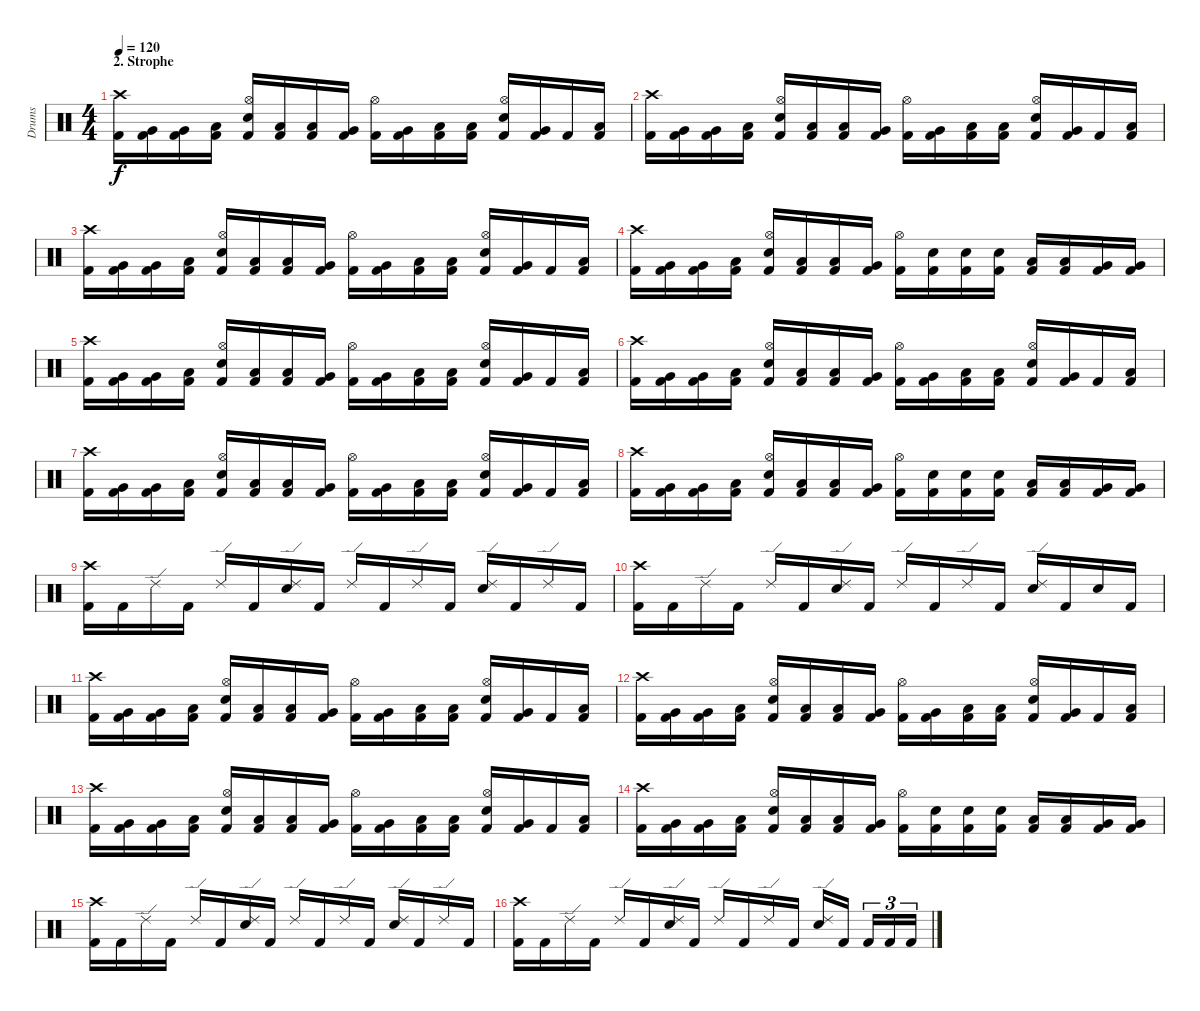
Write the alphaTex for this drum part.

\track ("Drums" "Drums") {instrument percussion}
\staff {score}
\articulation defaults
\ts (4 4)
\section ("" "2. Strophe")
\tempo 120
\clef neutral
\ks c
("Crash high (hit)" "Kick (hit) 2").16{dy f} ("Very Low Tom (hit)" "Kick (hit) 2").16 ("Very Low Tom (hit)" "Kick (hit) 2").16 ("Low Floor Tom (hit)" "Kick (hit) 2").16 ("Hi-Hat (open)" "Snare (hit) 2" "Kick (hit) 2").16 ("Low Tom (hit)" "Kick (hit) 2").16 ("Low Tom (hit)" "Kick (hit) 2").16 ("Very Low Tom (hit)" "Kick (hit) 2").16 ("Hi-Hat (open)" "Kick (hit) 2").16 ("Very Low Tom (hit)" "Kick (hit) 2").16 ("Low Floor Tom (hit)" "Kick (hit) 2").16 ("Low Floor Tom (hit)" "Kick (hit) 2").16 ("Hi-Hat (open)" "Snare (hit) 2" "Kick (hit) 2").16 ("Very Low Tom (hit)" "Kick (hit) 2").16 "Kick (hit) 2".16 ("Low Floor Tom (hit)" "Kick (hit) 2").16 |
("Crash high (hit)" "Kick (hit) 2").16 ("Very Low Tom (hit)" "Kick (hit) 2").16 ("Very Low Tom (hit)" "Kick (hit) 2").16 ("Low Floor Tom (hit)" "Kick (hit) 2").16 ("Hi-Hat (open)" "Snare (hit) 2" "Kick (hit) 2").16 ("Low Tom (hit)" "Kick (hit) 2").16 ("Low Tom (hit)" "Kick (hit) 2").16 ("Very Low Tom (hit)" "Kick (hit) 2").16 ("Hi-Hat (open)" "Kick (hit) 2").16 ("Very Low Tom (hit)" "Kick (hit) 2").16 ("Low Floor Tom (hit)" "Kick (hit) 2").16 ("Low Floor Tom (hit)" "Kick (hit) 2").16 ("Hi-Hat (open)" "Snare (hit) 2" "Kick (hit) 2").16 ("Very Low Tom (hit)" "Kick (hit) 2").16 "Kick (hit) 2".16 ("Low Floor Tom (hit)" "Kick (hit) 2").16 |
("Crash high (hit)" "Kick (hit) 2").16 ("Very Low Tom (hit)" "Kick (hit) 2").16 ("Very Low Tom (hit)" "Kick (hit) 2").16 ("Low Floor Tom (hit)" "Kick (hit) 2").16 ("Hi-Hat (open)" "Snare (hit) 2" "Kick (hit) 2").16 ("Low Tom (hit)" "Kick (hit) 2").16 ("Low Tom (hit)" "Kick (hit) 2").16 ("Very Low Tom (hit)" "Kick (hit) 2").16 ("Hi-Hat (open)" "Kick (hit) 2").16 ("Very Low Tom (hit)" "Kick (hit) 2").16 ("Low Floor Tom (hit)" "Kick (hit) 2").16 ("Low Floor Tom (hit)" "Kick (hit) 2").16 ("Hi-Hat (open)" "Snare (hit) 2" "Kick (hit) 2").16 ("Very Low Tom (hit)" "Kick (hit) 2").16 "Kick (hit) 2".16 ("Low Floor Tom (hit)" "Kick (hit) 2").16 |
("Crash high (hit)" "Kick (hit) 2").16 ("Very Low Tom (hit)" "Kick (hit) 2").16 ("Very Low Tom (hit)" "Kick (hit) 2").16 ("Low Floor Tom (hit)" "Kick (hit) 2").16 ("Hi-Hat (open)" "Snare (hit) 2" "Kick (hit) 2").16 ("Low Tom (hit)" "Kick (hit) 2").16 ("Low Tom (hit)" "Kick (hit) 2").16 ("Very Low Tom (hit)" "Kick (hit) 2").16 ("Hi-Hat (open)" "Kick (hit) 2").16 ("Snare (hit) 2" "Kick (hit) 2").16 ("Snare (hit) 2" "Kick (hit) 2").16 ("Snare (hit) 2" "Kick (hit) 2").16 ("Low Tom (hit)" "Kick (hit) 2").16 ("Low Tom (hit)" "Kick (hit) 2").16 ("Very Low Tom (hit)" "Kick (hit) 2").16 ("Very Low Tom (hit)" "Kick (hit) 2").16 |
("Crash high (hit)" "Kick (hit) 2").16 ("Very Low Tom (hit)" "Kick (hit) 2").16 ("Very Low Tom (hit)" "Kick (hit) 2").16 ("Low Floor Tom (hit)" "Kick (hit) 2").16 ("Hi-Hat (open)" "Snare (hit) 2" "Kick (hit) 2").16 ("Low Tom (hit)" "Kick (hit) 2").16 ("Low Tom (hit)" "Kick (hit) 2").16 ("Very Low Tom (hit)" "Kick (hit) 2").16 ("Hi-Hat (open)" "Kick (hit) 2").16 ("Very Low Tom (hit)" "Kick (hit) 2").16 ("Low Floor Tom (hit)" "Kick (hit) 2").16 ("Low Floor Tom (hit)" "Kick (hit) 2").16 ("Hi-Hat (open)" "Snare (hit) 2" "Kick (hit) 2").16 ("Very Low Tom (hit)" "Kick (hit) 2").16 "Kick (hit) 2".16 ("Low Floor Tom (hit)" "Kick (hit) 2").16 |
("Crash high (hit)" "Kick (hit) 2").16 ("Very Low Tom (hit)" "Kick (hit) 2").16 ("Very Low Tom (hit)" "Kick (hit) 2").16 ("Low Floor Tom (hit)" "Kick (hit) 2").16 ("Hi-Hat (open)" "Snare (hit) 2" "Kick (hit) 2").16 ("Low Tom (hit)" "Kick (hit) 2").16 ("Low Tom (hit)" "Kick (hit) 2").16 ("Very Low Tom (hit)" "Kick (hit) 2").16 ("Hi-Hat (open)" "Kick (hit) 2").16 ("Very Low Tom (hit)" "Kick (hit) 2").16 ("Low Floor Tom (hit)" "Kick (hit) 2").16 ("Low Floor Tom (hit)" "Kick (hit) 2").16 ("Hi-Hat (open)" "Snare (hit) 2" "Kick (hit) 2").16 ("Very Low Tom (hit)" "Kick (hit) 2").16 "Kick (hit) 2".16 ("Low Floor Tom (hit)" "Kick (hit) 2").16 |
("Crash high (hit)" "Kick (hit) 2").16 ("Very Low Tom (hit)" "Kick (hit) 2").16 ("Very Low Tom (hit)" "Kick (hit) 2").16 ("Low Floor Tom (hit)" "Kick (hit) 2").16 ("Hi-Hat (open)" "Snare (hit) 2" "Kick (hit) 2").16 ("Low Tom (hit)" "Kick (hit) 2").16 ("Low Tom (hit)" "Kick (hit) 2").16 ("Very Low Tom (hit)" "Kick (hit) 2").16 ("Hi-Hat (open)" "Kick (hit) 2").16 ("Very Low Tom (hit)" "Kick (hit) 2").16 ("Low Floor Tom (hit)" "Kick (hit) 2").16 ("Low Floor Tom (hit)" "Kick (hit) 2").16 ("Hi-Hat (open)" "Snare (hit) 2" "Kick (hit) 2").16 ("Very Low Tom (hit)" "Kick (hit) 2").16 "Kick (hit) 2".16 ("Low Floor Tom (hit)" "Kick (hit) 2").16 |
("Crash high (hit)" "Kick (hit) 2").16 ("Very Low Tom (hit)" "Kick (hit) 2").16 ("Very Low Tom (hit)" "Kick (hit) 2").16 ("Low Floor Tom (hit)" "Kick (hit) 2").16 ("Hi-Hat (open)" "Snare (hit) 2" "Kick (hit) 2").16 ("Low Tom (hit)" "Kick (hit) 2").16 ("Low Tom (hit)" "Kick (hit) 2").16 ("Very Low Tom (hit)" "Kick (hit) 2").16 ("Hi-Hat (open)" "Kick (hit) 2").16 ("Snare (hit) 2" "Kick (hit) 2").16 ("Snare (hit) 2" "Kick (hit) 2").16 ("Snare (hit) 2" "Kick (hit) 2").16 ("Low Tom (hit)" "Kick (hit) 2").16 ("Low Tom (hit)" "Kick (hit) 2").16 ("Very Low Tom (hit)" "Kick (hit) 2").16 ("Very Low Tom (hit)" "Kick (hit) 2").16 |
("Crash high (hit)" "Kick (hit) 2").16 "Kick (hit) 2".16 "Ride (edge) 2".16 "Kick (hit) 2".16 "Ride (edge) 2".16 "Kick (hit) 2".16 ("Ride (edge) 2" "Snare (hit) 2").16 "Kick (hit) 2".16 "Ride (edge) 2".16 "Kick (hit) 2".16 "Ride (edge) 2".16 "Kick (hit) 2".16 ("Ride (edge) 2" "Snare (hit) 2").16 "Kick (hit) 2".16 "Ride (edge) 2".16 "Kick (hit) 2".16 |
("Crash high (hit)" "Kick (hit) 2").16 "Kick (hit) 2".16 "Ride (edge) 2".16 "Kick (hit) 2".16 "Ride (edge) 2".16 "Kick (hit) 2".16 ("Ride (edge) 2" "Snare (hit) 2").16 "Kick (hit) 2".16 "Ride (edge) 2".16 "Kick (hit) 2".16 "Ride (edge) 2".16 "Kick (hit) 2".16 ("Ride (edge) 2" "Snare (hit) 2").16 "Kick (hit) 2".16 "Snare (hit) 2".16 "Kick (hit) 2".16 |
("Crash high (hit)" "Kick (hit) 2").16 ("Very Low Tom (hit)" "Kick (hit) 2").16 ("Very Low Tom (hit)" "Kick (hit) 2").16 ("Low Floor Tom (hit)" "Kick (hit) 2").16 ("Hi-Hat (open)" "Snare (hit) 2" "Kick (hit) 2").16 ("Low Tom (hit)" "Kick (hit) 2").16 ("Low Tom (hit)" "Kick (hit) 2").16 ("Very Low Tom (hit)" "Kick (hit) 2").16 ("Hi-Hat (open)" "Kick (hit) 2").16 ("Very Low Tom (hit)" "Kick (hit) 2").16 ("Low Floor Tom (hit)" "Kick (hit) 2").16 ("Low Floor Tom (hit)" "Kick (hit) 2").16 ("Hi-Hat (open)" "Snare (hit) 2" "Kick (hit) 2").16 ("Very Low Tom (hit)" "Kick (hit) 2").16 "Kick (hit) 2".16 ("Low Floor Tom (hit)" "Kick (hit) 2").16 |
("Crash high (hit)" "Kick (hit) 2").16 ("Very Low Tom (hit)" "Kick (hit) 2").16 ("Very Low Tom (hit)" "Kick (hit) 2").16 ("Low Floor Tom (hit)" "Kick (hit) 2").16 ("Hi-Hat (open)" "Snare (hit) 2" "Kick (hit) 2").16 ("Low Tom (hit)" "Kick (hit) 2").16 ("Low Tom (hit)" "Kick (hit) 2").16 ("Very Low Tom (hit)" "Kick (hit) 2").16 ("Hi-Hat (open)" "Kick (hit) 2").16 ("Very Low Tom (hit)" "Kick (hit) 2").16 ("Low Floor Tom (hit)" "Kick (hit) 2").16 ("Low Floor Tom (hit)" "Kick (hit) 2").16 ("Hi-Hat (open)" "Snare (hit) 2" "Kick (hit) 2").16 ("Very Low Tom (hit)" "Kick (hit) 2").16 "Kick (hit) 2".16 ("Low Floor Tom (hit)" "Kick (hit) 2").16 |
("Crash high (hit)" "Kick (hit) 2").16 ("Very Low Tom (hit)" "Kick (hit) 2").16 ("Very Low Tom (hit)" "Kick (hit) 2").16 ("Low Floor Tom (hit)" "Kick (hit) 2").16 ("Hi-Hat (open)" "Snare (hit) 2" "Kick (hit) 2").16 ("Low Tom (hit)" "Kick (hit) 2").16 ("Low Tom (hit)" "Kick (hit) 2").16 ("Very Low Tom (hit)" "Kick (hit) 2").16 ("Hi-Hat (open)" "Kick (hit) 2").16 ("Very Low Tom (hit)" "Kick (hit) 2").16 ("Low Floor Tom (hit)" "Kick (hit) 2").16 ("Low Floor Tom (hit)" "Kick (hit) 2").16 ("Hi-Hat (open)" "Snare (hit) 2" "Kick (hit) 2").16 ("Very Low Tom (hit)" "Kick (hit) 2").16 "Kick (hit) 2".16 ("Low Floor Tom (hit)" "Kick (hit) 2").16 |
("Crash high (hit)" "Kick (hit) 2").16 ("Very Low Tom (hit)" "Kick (hit) 2").16 ("Very Low Tom (hit)" "Kick (hit) 2").16 ("Low Floor Tom (hit)" "Kick (hit) 2").16 ("Hi-Hat (open)" "Snare (hit) 2" "Kick (hit) 2").16 ("Low Tom (hit)" "Kick (hit) 2").16 ("Low Tom (hit)" "Kick (hit) 2").16 ("Very Low Tom (hit)" "Kick (hit) 2").16 ("Hi-Hat (open)" "Kick (hit) 2").16 ("Snare (hit) 2" "Kick (hit) 2").16 ("Snare (hit) 2" "Kick (hit) 2").16 ("Snare (hit) 2" "Kick (hit) 2").16 ("Low Tom (hit)" "Kick (hit) 2").16 ("Low Tom (hit)" "Kick (hit) 2").16 ("Very Low Tom (hit)" "Kick (hit) 2").16 ("Very Low Tom (hit)" "Kick (hit) 2").16 |
("Crash high (hit)" "Kick (hit) 2").16 "Kick (hit) 2".16 "Ride (edge) 2".16 "Kick (hit) 2".16 "Ride (edge) 2".16 "Kick (hit) 2".16 ("Ride (edge) 2" "Snare (hit) 2").16 "Kick (hit) 2".16 "Ride (edge) 2".16 "Kick (hit) 2".16 "Ride (edge) 2".16 "Kick (hit) 2".16 ("Ride (edge) 2" "Snare (hit) 2").16 "Kick (hit) 2".16 "Ride (edge) 2".16 "Kick (hit) 2".16 |
("Crash high (hit)" "Kick (hit) 2").16 "Kick (hit) 2".16 "Ride (edge) 2".16 "Kick (hit) 2".16 "Ride (edge) 2".16 "Kick (hit) 2".16 ("Ride (edge) 2" "Snare (hit) 2").16 "Kick (hit) 2".16 "Ride (edge) 2".16 "Kick (hit) 2".16 "Ride (edge) 2".16 "Kick (hit) 2".16 ("Ride (edge) 2" "Snare (hit) 2").16 "Kick (hit) 2".16 "Kick (hit) 2".16{tu (3 2)} "Kick (hit) 2".16{tu (3 2)} "Kick (hit) 2".16{tu (3 2)}
